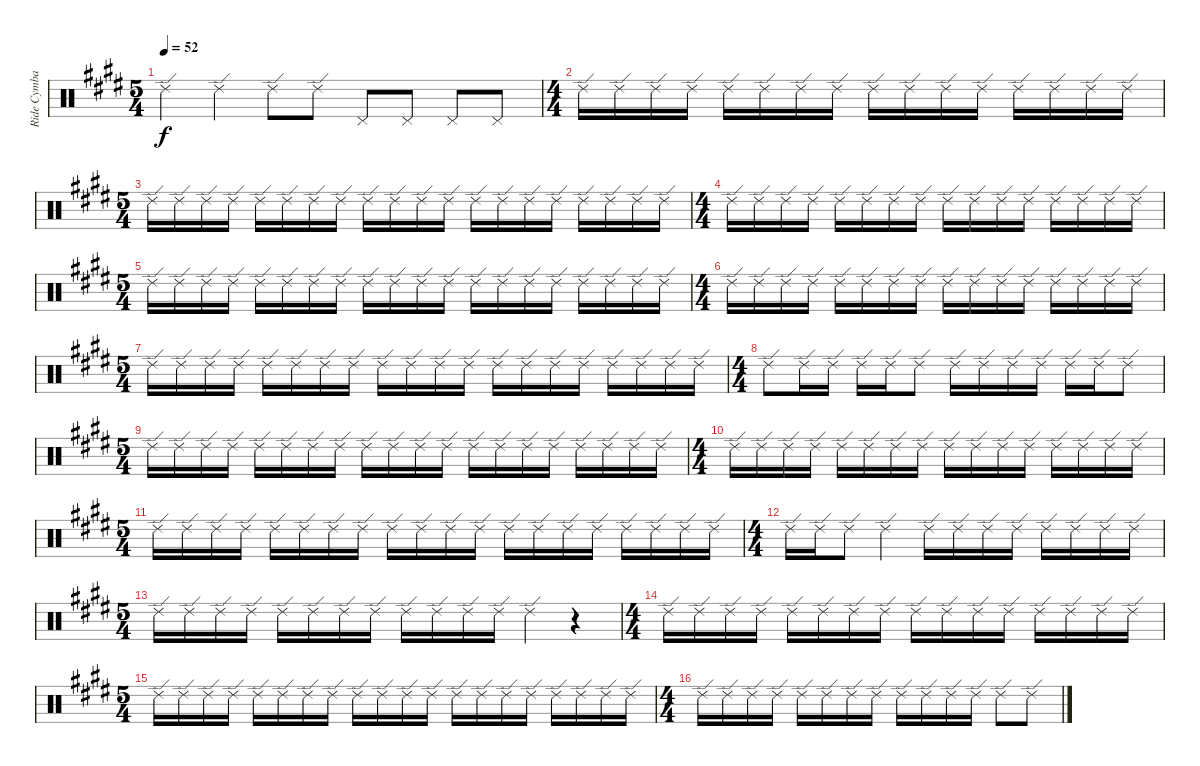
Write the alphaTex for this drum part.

\track ("Ride Cymbal" "Ride Cymba") {instrument percussion}
\staff {score}
\articulation defaults
\ts (5 4)
\tempo 52
\clef neutral
\ks e "Ride (edge) 2".4{dy f} "Ride (edge) 2".4 "Ride (edge) 2".8 "Ride (edge) 2".8 "Pedal Hi-Hat (hit)".8 "Pedal Hi-Hat (hit)".8 "Pedal Hi-Hat (hit)".8 "Pedal Hi-Hat (hit)".8
|
\ts (4 4)
"Ride (edge) 2".16 "Ride (edge) 2".16 "Ride (edge) 2".16 "Ride (edge) 2".16 "Ride (edge) 2".16 "Ride (edge) 2".16 "Ride (edge) 2".16 "Ride (edge) 2".16 "Ride (edge) 2".16 "Ride (edge) 2".16 "Ride (edge) 2".16 "Ride (edge) 2".16 "Ride (edge) 2".16 "Ride (edge) 2".16 "Ride (edge) 2".16 "Ride (edge) 2".16 |
\ts (5 4)
"Ride (edge) 2".16 "Ride (edge) 2".16 "Ride (edge) 2".16 "Ride (edge) 2".16 "Ride (edge) 2".16 "Ride (edge) 2".16 "Ride (edge) 2".16 "Ride (edge) 2".16 "Ride (edge) 2".16 "Ride (edge) 2".16 "Ride (edge) 2".16 "Ride (edge) 2".16 "Ride (edge) 2".16 "Ride (edge) 2".16 "Ride (edge) 2".16 "Ride (edge) 2".16 "Ride (edge) 2".16 "Ride (edge) 2".16 "Ride (edge) 2".16 "Ride (edge) 2".16 |
\ts (4 4)
"Ride (edge) 2".16 "Ride (edge) 2".16 "Ride (edge) 2".16 "Ride (edge) 2".16 "Ride (edge) 2".16 "Ride (edge) 2".16 "Ride (edge) 2".16 "Ride (edge) 2".16 "Ride (edge) 2".16 "Ride (edge) 2".16 "Ride (edge) 2".16 "Ride (edge) 2".16 "Ride (edge) 2".16 "Ride (edge) 2".16 "Ride (edge) 2".16 "Ride (edge) 2".16 |
\ts (5 4)
"Ride (edge) 2".16 "Ride (edge) 2".16 "Ride (edge) 2".16 "Ride (edge) 2".16 "Ride (edge) 2".16 "Ride (edge) 2".16 "Ride (edge) 2".16 "Ride (edge) 2".16 "Ride (edge) 2".16 "Ride (edge) 2".16 "Ride (edge) 2".16 "Ride (edge) 2".16 "Ride (edge) 2".16 "Ride (edge) 2".16 "Ride (edge) 2".16 "Ride (edge) 2".16 "Ride (edge) 2".16 "Ride (edge) 2".16 "Ride (edge) 2".16 "Ride (edge) 2".16 |
\ts (4 4)
"Ride (edge) 2".16 "Ride (edge) 2".16 "Ride (edge) 2".16 "Ride (edge) 2".16 "Ride (edge) 2".16 "Ride (edge) 2".16 "Ride (edge) 2".16 "Ride (edge) 2".16 "Ride (edge) 2".16 "Ride (edge) 2".16 "Ride (edge) 2".16 "Ride (edge) 2".16 "Ride (edge) 2".16 "Ride (edge) 2".16 "Ride (edge) 2".16 "Ride (edge) 2".16 |
\ts (5 4)
"Ride (edge) 2".16 "Ride (edge) 2".16 "Ride (edge) 2".16 "Ride (edge) 2".16 "Ride (edge) 2".16 "Ride (edge) 2".16 "Ride (edge) 2".16 "Ride (edge) 2".16 "Ride (edge) 2".16 "Ride (edge) 2".16 "Ride (edge) 2".16 "Ride (edge) 2".16 "Ride (edge) 2".16 "Ride (edge) 2".16 "Ride (edge) 2".16 "Ride (edge) 2".16 "Ride (edge) 2".16 "Ride (edge) 2".16 "Ride (edge) 2".16 "Ride (edge) 2".16 |
\ts (4 4)
"Ride (edge) 2".8 "Ride (edge) 2".16 "Ride (edge) 2".16 "Ride (edge) 2".16 "Ride (edge) 2".16 "Ride (edge) 2".8 "Ride (edge) 2".16 "Ride (edge) 2".16 "Ride (edge) 2".16 "Ride (edge) 2".16 "Ride (edge) 2".16 "Ride (edge) 2".16 "Ride (edge) 2".8 |
\ts (5 4)
"Ride (edge) 2".16 "Ride (edge) 2".16 "Ride (edge) 2".16 "Ride (edge) 2".16 "Ride (edge) 2".16 "Ride (edge) 2".16 "Ride (edge) 2".16 "Ride (edge) 2".16 "Ride (edge) 2".16 "Ride (edge) 2".16 "Ride (edge) 2".16 "Ride (edge) 2".16 "Ride (edge) 2".16 "Ride (edge) 2".16 "Ride (edge) 2".16 "Ride (edge) 2".16 "Ride (edge) 2".16 "Ride (edge) 2".16 "Ride (edge) 2".16 "Ride (edge) 2".16 |
\ts (4 4)
"Ride (edge) 2".16 "Ride (edge) 2".16 "Ride (edge) 2".16 "Ride (edge) 2".16 "Ride (edge) 2".16 "Ride (edge) 2".16 "Ride (edge) 2".16 "Ride (edge) 2".16 "Ride (edge) 2".16 "Ride (edge) 2".16 "Ride (edge) 2".16 "Ride (edge) 2".16 "Ride (edge) 2".16 "Ride (edge) 2".16 "Ride (edge) 2".16 "Ride (edge) 2".16 |
\ts (5 4)
"Ride (edge) 2".16 "Ride (edge) 2".16 "Ride (edge) 2".16 "Ride (edge) 2".16 "Ride (edge) 2".16 "Ride (edge) 2".16 "Ride (edge) 2".16 "Ride (edge) 2".16 "Ride (edge) 2".16 "Ride (edge) 2".16 "Ride (edge) 2".16 "Ride (edge) 2".16 "Ride (edge) 2".16 "Ride (edge) 2".16 "Ride (edge) 2".16 "Ride (edge) 2".16 "Ride (edge) 2".16 "Ride (edge) 2".16 "Ride (edge) 2".16 "Ride (edge) 2".16 |
\ts (4 4)
"Ride (edge) 2".16 "Ride (edge) 2".16 "Ride (edge) 2".8 "Ride (edge) 2".4 "Ride (edge) 2".16 "Ride (edge) 2".16 "Ride (edge) 2".16 "Ride (edge) 2".16 "Ride (edge) 2".16 "Ride (edge) 2".16 "Ride (edge) 2".16 "Ride (edge) 2".16 |
\ts (5 4)
"Ride (edge) 2".16 "Ride (edge) 2".16 "Ride (edge) 2".16 "Ride (edge) 2".16 "Ride (edge) 2".16 "Ride (edge) 2".16 "Ride (edge) 2".16 "Ride (edge) 2".16 "Ride (edge) 2".16 "Ride (edge) 2".16 "Ride (edge) 2".16 "Ride (edge) 2".16 "Ride (edge) 2".4 r.4 |
\ts (4 4)
"Ride (edge) 2".16 "Ride (edge) 2".16 "Ride (edge) 2".16 "Ride (edge) 2".16 "Ride (edge) 2".16 "Ride (edge) 2".16 "Ride (edge) 2".16 "Ride (edge) 2".16 "Ride (edge) 2".16 "Ride (edge) 2".16 "Ride (edge) 2".16 "Ride (edge) 2".16 "Ride (edge) 2".16 "Ride (edge) 2".16 "Ride (edge) 2".16 "Ride (edge) 2".16 |
\ts (5 4)
"Ride (edge) 2".16 "Ride (edge) 2".16 "Ride (edge) 2".16 "Ride (edge) 2".16 "Ride (edge) 2".16 "Ride (edge) 2".16 "Ride (edge) 2".16 "Ride (edge) 2".16 "Ride (edge) 2".16 "Ride (edge) 2".16 "Ride (edge) 2".16 "Ride (edge) 2".16 "Ride (edge) 2".16 "Ride (edge) 2".16 "Ride (edge) 2".16 "Ride (edge) 2".16 "Ride (edge) 2".16 "Ride (edge) 2".16 "Ride (edge) 2".16 "Ride (edge) 2".16 |
\ts (4 4)
"Ride (edge) 2".16 "Ride (edge) 2".16 "Ride (edge) 2".16 "Ride (edge) 2".16 "Ride (edge) 2".16 "Ride (edge) 2".16 "Ride (edge) 2".16 "Ride (edge) 2".16 "Ride (edge) 2".16 "Ride (edge) 2".16 "Ride (edge) 2".16 "Ride (edge) 2".16 "Ride (edge) 2".8 "Ride (edge) 2".8
